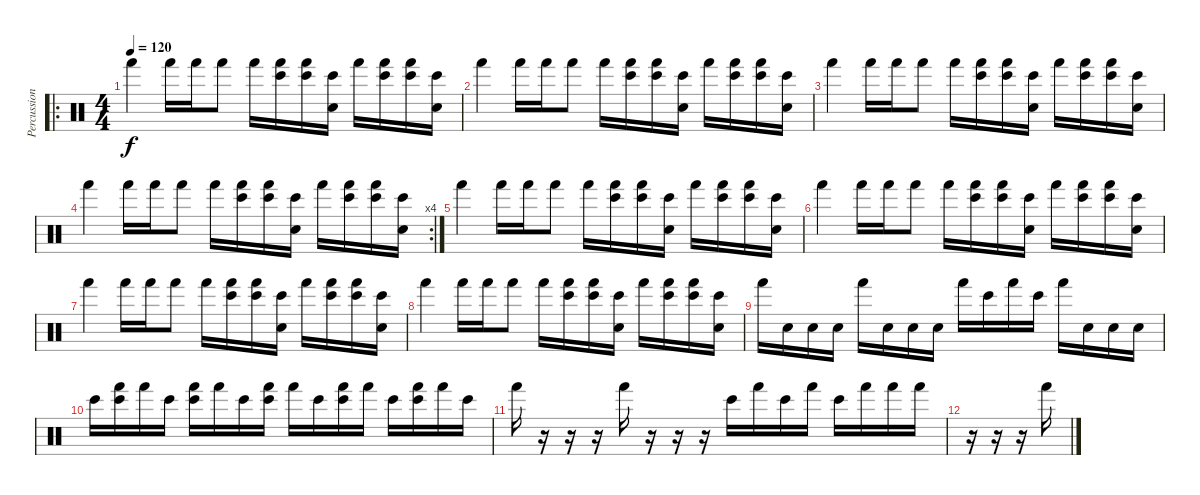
\track ("Percussions" "Percussion") {instrument percussion}
\staff {score}
\articulation defaults
\ro
\ts (4 4)
\tempo 120
\clef neutral
\ks c "Hand (hit)".4{dy f} "Hand (hit)".16 "Hand (hit)".16 "Hand (hit)".8 "Hand (hit)".16
("Hand (hit)" "Bongo High (hit)").16 ("Hand (hit)" "Bongo High (hit)").16 ("Snare (hit)" "Bongo High (hit)").16 "Hand (hit)".16 ("Hand (hit)" "Bongo High (hit)").16 ("Hand (hit)" "Bongo High (hit)").16 ("Snare (hit)" "Bongo High (hit)").16 |
"Hand (hit)".4 "Hand (hit)".16 "Hand (hit)".16 "Hand (hit)".8 "Hand (hit)".16 ("Hand (hit)" "Bongo High (hit)").16 ("Hand (hit)" "Bongo High (hit)").16 ("Snare (hit)" "Bongo High (hit)").16 "Hand (hit)".16 ("Hand (hit)" "Bongo High (hit)").16 ("Hand (hit)" "Bongo High (hit)").16 ("Snare (hit)" "Bongo High (hit)").16 |
"Hand (hit)".4 "Hand (hit)".16 "Hand (hit)".16 "Hand (hit)".8 "Hand (hit)".16 ("Hand (hit)" "Bongo High (hit)").16 ("Hand (hit)" "Bongo High (hit)").16 ("Snare (hit)" "Bongo High (hit)").16 "Hand (hit)".16 ("Hand (hit)" "Bongo High (hit)").16 ("Hand (hit)" "Bongo High (hit)").16 ("Snare (hit)" "Bongo High (hit)").16 |
\rc 4 "Hand (hit)".4 "Hand (hit)".16 "Hand (hit)".16 "Hand (hit)".8 "Hand (hit)".16
("Hand (hit)" "Bongo High (hit)").16 ("Hand (hit)" "Bongo High (hit)").16 ("Snare (hit)" "Bongo High (hit)").16 "Hand (hit)".16 ("Hand (hit)" "Bongo High (hit)").16 ("Hand (hit)" "Bongo High (hit)").16 ("Snare (hit)" "Bongo High (hit)").16 |
"Hand (hit)".4 "Hand (hit)".16 "Hand (hit)".16 "Hand (hit)".8 "Hand (hit)".16 ("Hand (hit)" "Bongo High (hit)").16 ("Hand (hit)" "Bongo High (hit)").16 ("Snare (hit)" "Bongo High (hit)").16 "Hand (hit)".16 ("Hand (hit)" "Bongo High (hit)").16 ("Hand (hit)" "Bongo High (hit)").16 ("Snare (hit)" "Bongo High (hit)").16 |
"Hand (hit)".4 "Hand (hit)".16 "Hand (hit)".16 "Hand (hit)".8 "Hand (hit)".16 ("Hand (hit)" "Bongo High (hit)").16 ("Hand (hit)" "Bongo High (hit)").16 ("Snare (hit)" "Bongo High (hit)").16 "Hand (hit)".16 ("Hand (hit)" "Bongo High (hit)").16 ("Hand (hit)" "Bongo High (hit)").16 ("Snare (hit)" "Bongo High (hit)").16 |
"Hand (hit)".4 "Hand (hit)".16 "Hand (hit)".16 "Hand (hit)".8 "Hand (hit)".16 ("Hand (hit)" "Bongo High (hit)").16 ("Hand (hit)" "Bongo High (hit)").16 ("Snare (hit)" "Bongo High (hit)").16 "Hand (hit)".16 ("Hand (hit)" "Bongo High (hit)").16 ("Hand (hit)" "Bongo High (hit)").16 ("Snare (hit)" "Bongo High (hit)").16 |
"Hand (hit)".4 "Hand (hit)".16 "Hand (hit)".16 "Hand (hit)".8 "Hand (hit)".16 ("Hand (hit)" "Bongo High (hit)").16 ("Hand (hit)" "Bongo High (hit)").16 ("Snare (hit)" "Bongo High (hit)").16 "Hand (hit)".16 ("Hand (hit)" "Bongo High (hit)").16 ("Hand (hit)" "Bongo High (hit)").16 ("Snare (hit)" "Bongo High (hit)").16 |
"Hand (hit)".16 "Snare (hit)".16 "Snare (hit)".16 "Snare (hit)".16 "Hand (hit)".16 "Snare (hit)".16 "Snare (hit)".16 "Snare (hit)".16 "Hand (hit)".16 "Bongo High (hit)".16 "Hand (hit)".16 "Bongo High (hit)".16 "Hand (hit)".16 "Snare (hit)".16 "Snare (hit)".16 "Snare (hit)".16 |
"Bongo High (hit)".16 ("Bongo High (hit)" "Hand (hit)").16 "Hand (hit)".16 "Bongo High (hit)".16 ("Bongo High (hit)" "Hand (hit)").16 "Hand (hit)".16 "Bongo High (hit)".16 ("Bongo High (hit)" "Hand (hit)").16 "Hand (hit)".16 "Bongo High (hit)".16 ("Bongo High (hit)" "Hand (hit)").16 "Hand (hit)".16 "Bongo High (hit)".16 ("Bongo High (hit)" "Hand (hit)").16 "Hand (hit)".16 "Bongo High (hit)".16 |
"Hand (hit)".16 r.16 r.16 r.16 "Hand (hit)".16 r.16 r.16 r.16 "Bongo High (hit)".16 "Hand (hit)".16 "Bongo High (hit)".16 "Hand (hit)".16 "Bongo High (hit)".16 "Hand (hit)".16 "Hand (hit)".16 "Hand (hit)".16 |
r.16 r.16 r.16 "Hand (hit)".16
